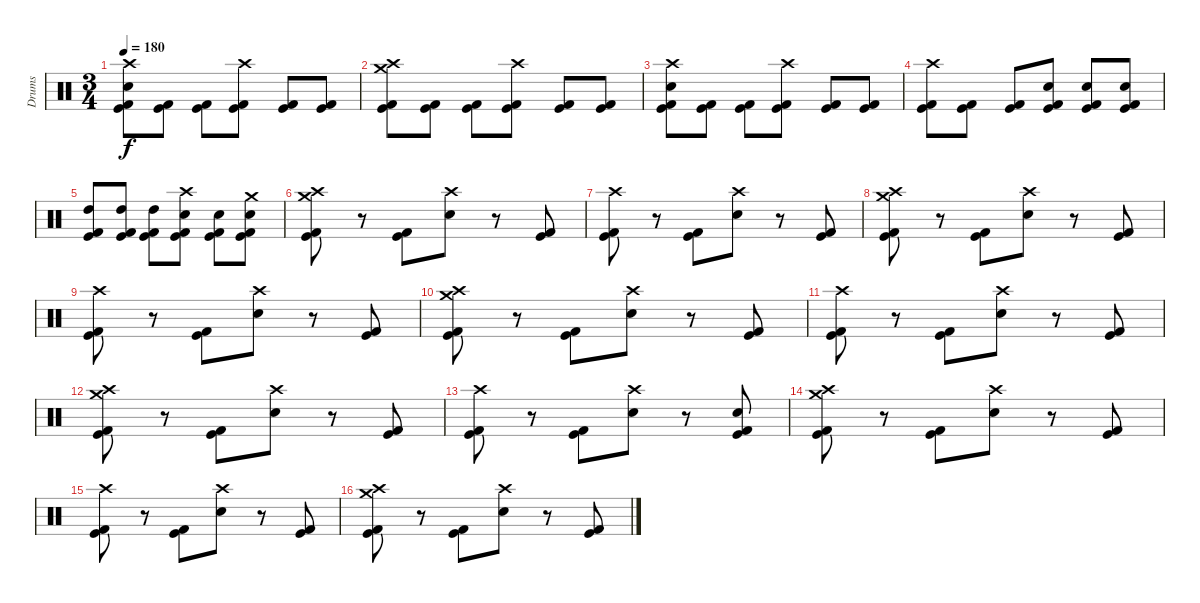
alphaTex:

\track ("Drums" "Drums") {instrument percussion}
\staff {score}
\articulation defaults
\ts (3 4)
\tempo 180
\clef neutral
\ks c
("Crash high (hit)" "Snare (hit) 2" "Kick (hit)" "Kick (hit) 2").8{dy f} ("Kick (hit)" "Kick (hit) 2").8 ("Kick (hit)" "Kick (hit) 2").8 ("Crash high (hit)" "Kick (hit)" "Kick (hit) 2").8 ("Kick (hit)" "Kick (hit) 2").8 ("Kick (hit)" "Kick (hit) 2").8 |
("Crash medium (hit)" "Crash high (hit)" "Kick (hit)" "Kick (hit) 2").8 ("Kick (hit)" "Kick (hit) 2").8 ("Kick (hit)" "Kick (hit) 2").8 ("Crash high (hit)" "Kick (hit)" "Kick (hit) 2").8 ("Kick (hit)" "Kick (hit) 2").8 ("Kick (hit)" "Kick (hit) 2").8 |
("Crash high (hit)" "Snare (hit) 2" "Kick (hit)" "Kick (hit) 2").8 ("Kick (hit)" "Kick (hit) 2").8 ("Kick (hit)" "Kick (hit) 2").8 ("Crash high (hit)" "Kick (hit)" "Kick (hit) 2").8 ("Kick (hit)" "Kick (hit) 2").8 ("Kick (hit)" "Kick (hit) 2").8 |
("Crash high (hit)" "Kick (hit)" "Kick (hit) 2").8 ("Kick (hit)" "Kick (hit) 2").8 ("Kick (hit)" "Kick (hit) 2").8 ("Snare (hit) 2" "Kick (hit)" "Kick (hit) 2").8 ("Snare (hit) 2" "Kick (hit)" "Kick (hit) 2").8 ("Snare (hit) 2" "Kick (hit)" "Kick (hit) 2").8 |
("High Tom (hit)" "Kick (hit)" "Kick (hit) 2").8 ("High Tom (hit)" "Kick (hit)" "Kick (hit) 2").8 ("High Tom (hit)" "Kick (hit)" "Kick (hit) 2").8 ("Crash high (hit)" "Snare (hit) 2" "Kick (hit)" "Kick (hit) 2").8 ("Snare (hit) 2" "Kick (hit)" "Kick (hit) 2").8 ("Crash medium (hit)" "Snare (hit) 2" "Kick (hit)" "Kick (hit) 2").8 |
("Crash medium (hit)" "Crash high (hit)" "Kick (hit)" "Kick (hit) 2").8 r.8 ("Kick (hit)" "Kick (hit) 2").8 ("Crash high (hit)" "Snare (hit) 2").8 r.8 ("Kick (hit)" "Kick (hit) 2").8 |
("Crash high (hit)" "Kick (hit)" "Kick (hit) 2").8 r.8 ("Kick (hit)" "Kick (hit) 2").8 ("Crash high (hit)" "Snare (hit) 2").8 r.8 ("Kick (hit)" "Kick (hit) 2").8 |
("Crash medium (hit)" "Crash high (hit)" "Kick (hit)" "Kick (hit) 2").8 r.8 ("Kick (hit)" "Kick (hit) 2").8 ("Crash high (hit)" "Snare (hit) 2").8 r.8 ("Kick (hit)" "Kick (hit) 2").8 |
("Crash high (hit)" "Kick (hit)" "Kick (hit) 2").8 r.8 ("Kick (hit)" "Kick (hit) 2").8 ("Crash high (hit)" "Snare (hit) 2").8 r.8 ("Kick (hit)" "Kick (hit) 2").8 |
("Crash medium (hit)" "Crash high (hit)" "Kick (hit)" "Kick (hit) 2").8 r.8 ("Kick (hit)" "Kick (hit) 2").8 ("Crash high (hit)" "Snare (hit) 2").8 r.8 ("Kick (hit)" "Kick (hit) 2").8 |
("Crash high (hit)" "Kick (hit)" "Kick (hit) 2").8 r.8 ("Kick (hit)" "Kick (hit) 2").8 ("Crash high (hit)" "Snare (hit) 2").8 r.8 ("Kick (hit)" "Kick (hit) 2").8 |
("Crash medium (hit)" "Crash high (hit)" "Kick (hit)" "Kick (hit) 2").8 r.8 ("Kick (hit)" "Kick (hit) 2").8 ("Crash high (hit)" "Snare (hit) 2").8 r.8 ("Kick (hit)" "Kick (hit) 2").8 |
("Crash high (hit)" "Kick (hit)" "Kick (hit) 2").8 r.8 ("Kick (hit)" "Kick (hit) 2").8 ("Crash high (hit)" "Snare (hit) 2").8 r.8 ("Snare (hit) 2" "Kick (hit)" "Kick (hit) 2").8 |
("Crash medium (hit)" "Crash high (hit)" "Kick (hit)" "Kick (hit) 2").8 r.8 ("Kick (hit)" "Kick (hit) 2").8 ("Crash high (hit)" "Snare (hit) 2").8 r.8 ("Kick (hit)" "Kick (hit) 2").8 |
("Crash high (hit)" "Kick (hit)" "Kick (hit) 2").8 r.8 ("Kick (hit)" "Kick (hit) 2").8 ("Crash high (hit)" "Snare (hit) 2").8 r.8 ("Kick (hit)" "Kick (hit) 2").8 |
("Crash medium (hit)" "Crash high (hit)" "Kick (hit)" "Kick (hit) 2").8 r.8 ("Kick (hit)" "Kick (hit) 2").8 ("Crash high (hit)" "Snare (hit) 2").8 r.8 ("Kick (hit)" "Kick (hit) 2").8
